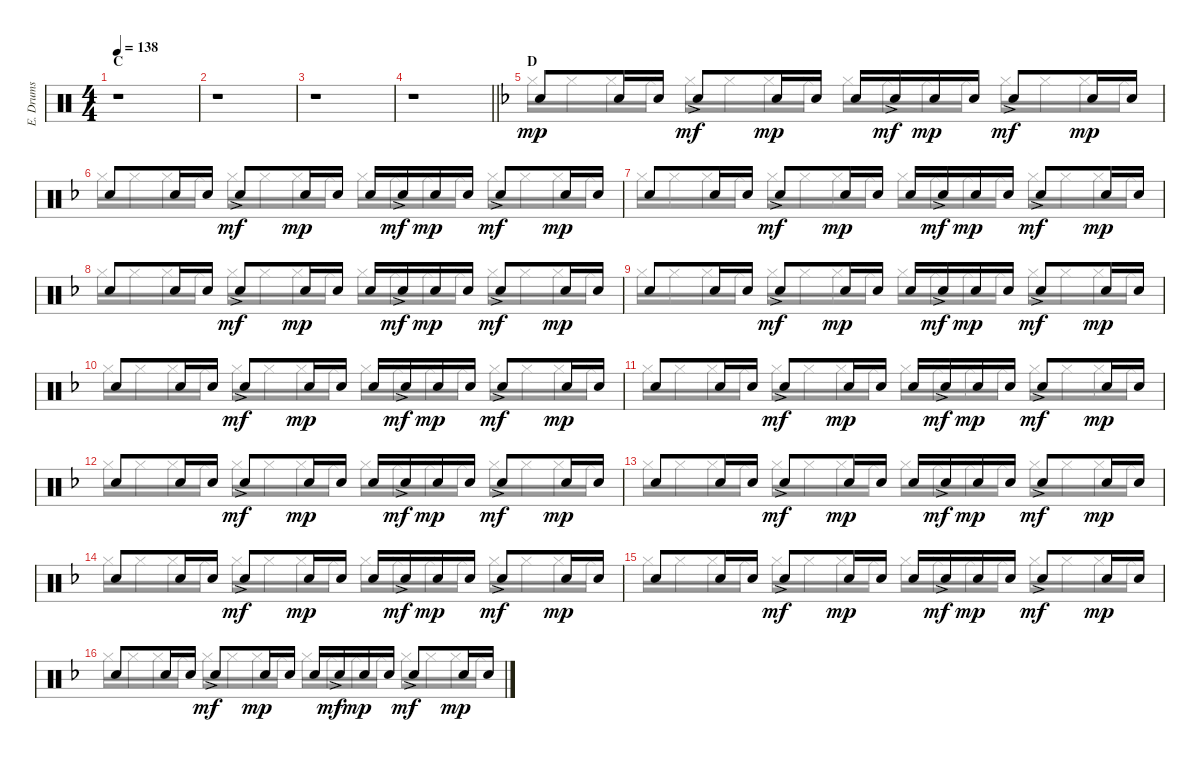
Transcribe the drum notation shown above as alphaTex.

\track ("E. Drums" "E. Drums") {instrument percussion}
\staff {score}
\articulation defaults
\voice
\ts (4 4)
\section ("" "C")
\tempo 138
\clef neutral
\ks c
r.1{dy mp} |
r.1 |
r.1 |
\barLineRight lightlight
r.1 |
\section ("" "D")
\ks f "Electric Snare (hit)".8 "Electric Snare (hit)".16 "Electric Snare (hit)".16 "Electric Snare (hit)"{ac}.8{dy mf} "Electric Snare (hit)".16{dy mp} "Electric Snare (hit)".16 "Electric Snare (hit)".16 "Electric Snare (hit)"{ac}.16{dy mf} "Electric Snare (hit)".16{dy mp} "Electric Snare (hit)".16 "Electric Snare (hit)"{ac}.8{dy mf} "Electric Snare (hit)".16{dy mp} "Electric Snare (hit)".16
|
"Electric Snare (hit)".8 "Electric Snare (hit)".16 "Electric Snare (hit)".16 "Electric Snare (hit)"{ac}.8{dy mf} "Electric Snare (hit)".16{dy mp} "Electric Snare (hit)".16 "Electric Snare (hit)".16 "Electric Snare (hit)"{ac}.16{dy mf} "Electric Snare (hit)".16{dy mp} "Electric Snare (hit)".16 "Electric Snare (hit)"{ac}.8{dy mf} "Electric Snare (hit)".16{dy mp} "Electric Snare (hit)".16 |
"Electric Snare (hit)".8 "Electric Snare (hit)".16 "Electric Snare (hit)".16 "Electric Snare (hit)"{ac}.8{dy mf} "Electric Snare (hit)".16{dy mp} "Electric Snare (hit)".16 "Electric Snare (hit)".16 "Electric Snare (hit)"{ac}.16{dy mf} "Electric Snare (hit)".16{dy mp} "Electric Snare (hit)".16 "Electric Snare (hit)"{ac}.8{dy mf} "Electric Snare (hit)".16{dy mp} "Electric Snare (hit)".16 |
"Electric Snare (hit)".8 "Electric Snare (hit)".16 "Electric Snare (hit)".16 "Electric Snare (hit)"{ac}.8{dy mf} "Electric Snare (hit)".16{dy mp} "Electric Snare (hit)".16 "Electric Snare (hit)".16 "Electric Snare (hit)"{ac}.16{dy mf} "Electric Snare (hit)".16{dy mp} "Electric Snare (hit)".16 "Electric Snare (hit)"{ac}.8{dy mf} "Electric Snare (hit)".16{dy mp} "Electric Snare (hit)".16 |
"Electric Snare (hit)".8 "Electric Snare (hit)".16 "Electric Snare (hit)".16 "Electric Snare (hit)"{ac}.8{dy mf} "Electric Snare (hit)".16{dy mp} "Electric Snare (hit)".16 "Electric Snare (hit)".16 "Electric Snare (hit)"{ac}.16{dy mf} "Electric Snare (hit)".16{dy mp} "Electric Snare (hit)".16 "Electric Snare (hit)"{ac}.8{dy mf} "Electric Snare (hit)".16{dy mp} "Electric Snare (hit)".16 |
"Electric Snare (hit)".8 "Electric Snare (hit)".16 "Electric Snare (hit)".16 "Electric Snare (hit)"{ac}.8{dy mf} "Electric Snare (hit)".16{dy mp} "Electric Snare (hit)".16 "Electric Snare (hit)".16 "Electric Snare (hit)"{ac}.16{dy mf} "Electric Snare (hit)".16{dy mp} "Electric Snare (hit)".16 "Electric Snare (hit)"{ac}.8{dy mf} "Electric Snare (hit)".16{dy mp} "Electric Snare (hit)".16 |
"Electric Snare (hit)".8 "Electric Snare (hit)".16 "Electric Snare (hit)".16 "Electric Snare (hit)"{ac}.8{dy mf} "Electric Snare (hit)".16{dy mp} "Electric Snare (hit)".16 "Electric Snare (hit)".16 "Electric Snare (hit)"{ac}.16{dy mf} "Electric Snare (hit)".16{dy mp} "Electric Snare (hit)".16 "Electric Snare (hit)"{ac}.8{dy mf} "Electric Snare (hit)".16{dy mp} "Electric Snare (hit)".16 |
"Electric Snare (hit)".8 "Electric Snare (hit)".16 "Electric Snare (hit)".16 "Electric Snare (hit)"{ac}.8{dy mf} "Electric Snare (hit)".16{dy mp} "Electric Snare (hit)".16 "Electric Snare (hit)".16 "Electric Snare (hit)"{ac}.16{dy mf} "Electric Snare (hit)".16{dy mp} "Electric Snare (hit)".16 "Electric Snare (hit)"{ac}.8{dy mf} "Electric Snare (hit)".16{dy mp} "Electric Snare (hit)".16 |
"Electric Snare (hit)".8 "Electric Snare (hit)".16 "Electric Snare (hit)".16 "Electric Snare (hit)"{ac}.8{dy mf} "Electric Snare (hit)".16{dy mp} "Electric Snare (hit)".16 "Electric Snare (hit)".16 "Electric Snare (hit)"{ac}.16{dy mf} "Electric Snare (hit)".16{dy mp} "Electric Snare (hit)".16 "Electric Snare (hit)"{ac}.8{dy mf} "Electric Snare (hit)".16{dy mp} "Electric Snare (hit)".16 |
"Electric Snare (hit)".8 "Electric Snare (hit)".16 "Electric Snare (hit)".16 "Electric Snare (hit)"{ac}.8{dy mf} "Electric Snare (hit)".16{dy mp} "Electric Snare (hit)".16 "Electric Snare (hit)".16 "Electric Snare (hit)"{ac}.16{dy mf} "Electric Snare (hit)".16{dy mp} "Electric Snare (hit)".16 "Electric Snare (hit)"{ac}.8{dy mf} "Electric Snare (hit)".16{dy mp} "Electric Snare (hit)".16 |
"Electric Snare (hit)".8 "Electric Snare (hit)".16 "Electric Snare (hit)".16 "Electric Snare (hit)"{ac}.8{dy mf} "Electric Snare (hit)".16{dy mp} "Electric Snare (hit)".16 "Electric Snare (hit)".16 "Electric Snare (hit)"{ac}.16{dy mf} "Electric Snare (hit)".16{dy mp} "Electric Snare (hit)".16 "Electric Snare (hit)"{ac}.8{dy mf} "Electric Snare (hit)".16{dy mp} "Electric Snare (hit)".16 |
"Electric Snare (hit)".8 "Electric Snare (hit)".16 "Electric Snare (hit)".16 "Electric Snare (hit)"{ac}.8{dy mf} "Electric Snare (hit)".16{dy mp} "Electric Snare (hit)".16 "Electric Snare (hit)".16 "Electric Snare (hit)"{ac}.16{dy mf} "Electric Snare (hit)".16{dy mp} "Electric Snare (hit)".16 "Electric Snare (hit)"{ac}.8{dy mf} "Electric Snare (hit)".16{dy mp} "Electric Snare (hit)".16
\voice
\clef neutral
\ottava regular
\simile none
\ks c
r.1{dy fff} |
r.1 |
r.1 |
\barLineRight lightlight
r.1 |
\ks f "Hi-Hat (closed)".16{dy mp} "Hi-Hat (closed)".16 "Hi-Hat (closed)".16 "Hi-Hat (closed)".16 "Hi-Hat (closed)".16 "Hi-Hat (closed)".16 "Hi-Hat (closed)".16 "Hi-Hat (closed)".16 "Hi-Hat (closed)".16 "Hi-Hat (closed)".16 "Hi-Hat (closed)".16 "Hi-Hat (closed)".16 "Hi-Hat (closed)".16 "Hi-Hat (closed)".16 "Hi-Hat (closed)".16 "Hi-Hat (closed)".16
|
"Hi-Hat (closed)".16 "Hi-Hat (closed)".16 "Hi-Hat (closed)".16 "Hi-Hat (closed)".16 "Hi-Hat (closed)".16 "Hi-Hat (closed)".16 "Hi-Hat (closed)".16 "Hi-Hat (closed)".16 "Hi-Hat (closed)".16 "Hi-Hat (closed)".16 "Hi-Hat (closed)".16 "Hi-Hat (closed)".16 "Hi-Hat (closed)".16 "Hi-Hat (closed)".16 "Hi-Hat (closed)".16 "Hi-Hat (closed)".16 |
"Hi-Hat (closed)".16 "Hi-Hat (closed)".16 "Hi-Hat (closed)".16 "Hi-Hat (closed)".16 "Hi-Hat (closed)".16 "Hi-Hat (closed)".16 "Hi-Hat (closed)".16 "Hi-Hat (closed)".16 "Hi-Hat (closed)".16 "Hi-Hat (closed)".16 "Hi-Hat (closed)".16 "Hi-Hat (closed)".16 "Hi-Hat (closed)".16 "Hi-Hat (closed)".16 "Hi-Hat (closed)".16 "Hi-Hat (closed)".16 |
"Hi-Hat (closed)".16 "Hi-Hat (closed)".16 "Hi-Hat (closed)".16 "Hi-Hat (closed)".16 "Hi-Hat (closed)".16 "Hi-Hat (closed)".16 "Hi-Hat (closed)".16 "Hi-Hat (closed)".16 "Hi-Hat (closed)".16 "Hi-Hat (closed)".16 "Hi-Hat (closed)".16 "Hi-Hat (closed)".16 "Hi-Hat (closed)".16 "Hi-Hat (closed)".16 "Hi-Hat (closed)".16 "Hi-Hat (closed)".16 |
"Hi-Hat (closed)".16 "Hi-Hat (closed)".16 "Hi-Hat (closed)".16 "Hi-Hat (closed)".16 "Hi-Hat (closed)".16 "Hi-Hat (closed)".16 "Hi-Hat (closed)".16 "Hi-Hat (closed)".16 "Hi-Hat (closed)".16 "Hi-Hat (closed)".16 "Hi-Hat (closed)".16 "Hi-Hat (closed)".16 "Hi-Hat (closed)".16 "Hi-Hat (closed)".16 "Hi-Hat (closed)".16 "Hi-Hat (closed)".16 |
"Hi-Hat (closed)".16 "Hi-Hat (closed)".16 "Hi-Hat (closed)".16 "Hi-Hat (closed)".16 "Hi-Hat (closed)".16 "Hi-Hat (closed)".16 "Hi-Hat (closed)".16 "Hi-Hat (closed)".16 "Hi-Hat (closed)".16 "Hi-Hat (closed)".16 "Hi-Hat (closed)".16 "Hi-Hat (closed)".16 "Hi-Hat (closed)".16 "Hi-Hat (closed)".16 "Hi-Hat (closed)".16 "Hi-Hat (closed)".16 |
"Hi-Hat (closed)".16 "Hi-Hat (closed)".16 "Hi-Hat (closed)".16 "Hi-Hat (closed)".16 "Hi-Hat (closed)".16 "Hi-Hat (closed)".16 "Hi-Hat (closed)".16 "Hi-Hat (closed)".16 "Hi-Hat (closed)".16 "Hi-Hat (closed)".16 "Hi-Hat (closed)".16 "Hi-Hat (closed)".16 "Hi-Hat (closed)".16 "Hi-Hat (closed)".16 "Hi-Hat (closed)".16 "Hi-Hat (closed)".16 |
"Hi-Hat (closed)".16 "Hi-Hat (closed)".16 "Hi-Hat (closed)".16 "Hi-Hat (closed)".16 "Hi-Hat (closed)".16 "Hi-Hat (closed)".16 "Hi-Hat (closed)".16 "Hi-Hat (closed)".16 "Hi-Hat (closed)".16 "Hi-Hat (closed)".16 "Hi-Hat (closed)".16 "Hi-Hat (closed)".16 "Hi-Hat (closed)".16 "Hi-Hat (closed)".16 "Hi-Hat (closed)".16 "Hi-Hat (closed)".16 |
"Hi-Hat (closed)".16 "Hi-Hat (closed)".16 "Hi-Hat (closed)".16 "Hi-Hat (closed)".16 "Hi-Hat (closed)".16 "Hi-Hat (closed)".16 "Hi-Hat (closed)".16 "Hi-Hat (closed)".16 "Hi-Hat (closed)".16 "Hi-Hat (closed)".16 "Hi-Hat (closed)".16 "Hi-Hat (closed)".16 "Hi-Hat (closed)".16 "Hi-Hat (closed)".16 "Hi-Hat (closed)".16 "Hi-Hat (closed)".16 |
"Hi-Hat (closed)".16 "Hi-Hat (closed)".16 "Hi-Hat (closed)".16 "Hi-Hat (closed)".16 "Hi-Hat (closed)".16 "Hi-Hat (closed)".16 "Hi-Hat (closed)".16 "Hi-Hat (closed)".16 "Hi-Hat (closed)".16 "Hi-Hat (closed)".16 "Hi-Hat (closed)".16 "Hi-Hat (closed)".16 "Hi-Hat (closed)".16 "Hi-Hat (closed)".16 "Hi-Hat (closed)".16 "Hi-Hat (closed)".16 |
"Hi-Hat (closed)".16 "Hi-Hat (closed)".16 "Hi-Hat (closed)".16 "Hi-Hat (closed)".16 "Hi-Hat (closed)".16 "Hi-Hat (closed)".16 "Hi-Hat (closed)".16 "Hi-Hat (closed)".16 "Hi-Hat (closed)".16 "Hi-Hat (closed)".16 "Hi-Hat (closed)".16 "Hi-Hat (closed)".16 "Hi-Hat (closed)".16 "Hi-Hat (closed)".16 "Hi-Hat (closed)".16 "Hi-Hat (closed)".16 |
"Hi-Hat (closed)".16 "Hi-Hat (closed)".16 "Hi-Hat (closed)".16 "Hi-Hat (closed)".16 "Hi-Hat (closed)".16 "Hi-Hat (closed)".16 "Hi-Hat (closed)".16 "Hi-Hat (closed)".16 "Hi-Hat (closed)".16 "Hi-Hat (closed)".16 "Hi-Hat (closed)".16 "Hi-Hat (closed)".16 "Hi-Hat (closed)".16 "Hi-Hat (closed)".16 "Hi-Hat (closed)".16 "Hi-Hat (closed)".16
